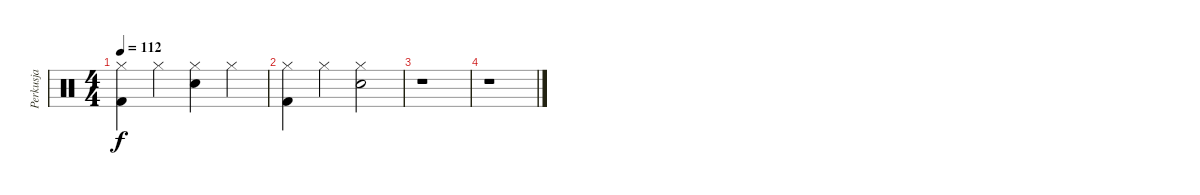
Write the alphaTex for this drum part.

\track ("Perkusja" "Perkusja") {instrument percussion}
\staff {score}
\articulation defaults
\ts (4 4)
\tempo 112
\clef neutral
\ks c
("Kick (hit) 2" "Hi-Hat (closed)").4{dy f} "Hi-Hat (closed)".4 ("Snare (hit) 2" "Hi-Hat (closed)").4 "Hi-Hat (closed)".4 |
("Kick (hit) 2" "Hi-Hat (closed)").4 "Hi-Hat (closed)".4 ("Snare (hit) 2" "Hi-Hat (closed)").2 |
r.1 |
r.1
